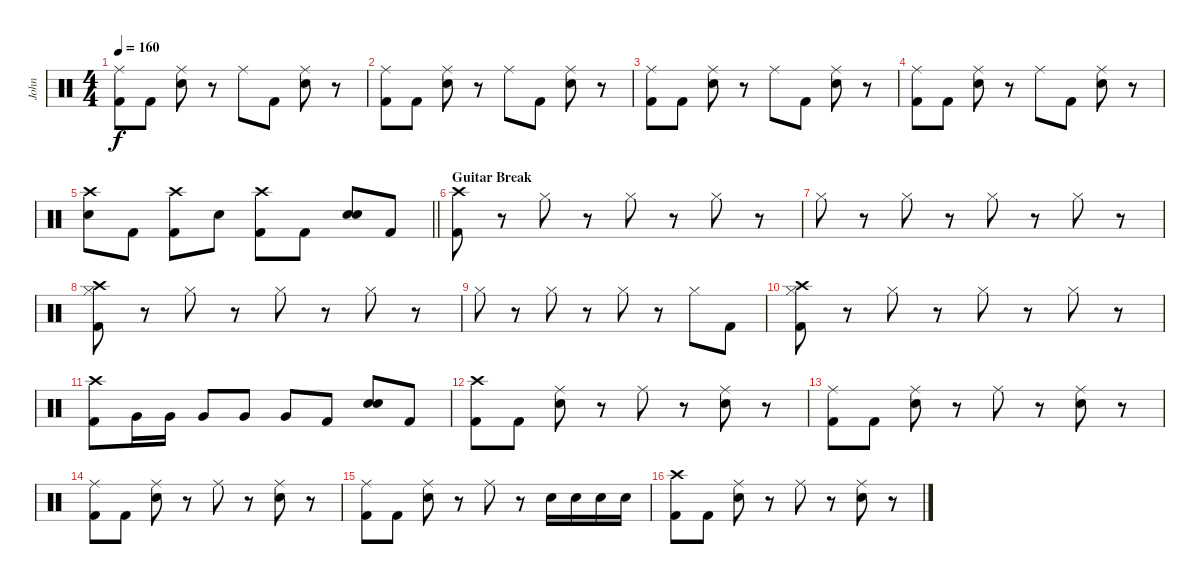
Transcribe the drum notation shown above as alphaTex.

\track ("John" "John") {instrument percussion}
\staff {score}
\articulation defaults
\ts (4 4)
\tempo 160
\clef neutral
\ks c
("Ride (middle)" "Kick (hit) 2").8{dy f} "Kick (hit) 2".8 ("Ride (middle)" "Snare (hit) 2").8 r.8 "Ride (middle)".8 "Kick (hit) 2".8 ("Ride (middle)" "Snare (hit) 2").8 r.8 |
("Ride (middle)" "Kick (hit) 2").8 "Kick (hit) 2".8 ("Ride (middle)" "Snare (hit) 2").8 r.8 "Ride (middle)".8 "Kick (hit) 2".8 ("Ride (middle)" "Snare (hit) 2").8 r.8 |
("Ride (middle)" "Kick (hit) 2").8 "Kick (hit) 2".8 ("Ride (middle)" "Snare (hit) 2").8 r.8 "Ride (middle)".8 "Kick (hit) 2".8 ("Ride (middle)" "Snare (hit) 2").8 r.8 |
("Ride (middle)" "Kick (hit) 2").8 "Kick (hit) 2".8 ("Ride (middle)" "Snare (hit) 2").8 r.8 "Ride (middle)".8 "Kick (hit) 2".8 ("Ride (middle)" "Snare (hit) 2").8 r.8 |
\barLineRight lightlight
("Crash high (hit)" "Snare (hit) 2").8 "Kick (hit) 2".8 ("Crash high (hit)" "Kick (hit) 2").8 "Snare (hit) 2".8 ("Crash high (hit)" "Kick (hit) 2").8 "Kick (hit) 2".8 ("Snare (hit) 2" "Snare (hit) 2").8 "Kick (hit) 2".8 |
\section ("" "Guitar Break")
("Crash high (hit)" "Kick (hit) 2").8 r.8 "Hi-Hat (closed)".8 r.8 "Hi-Hat (closed)".8 r.8 "Hi-Hat (closed)".8 r.8 |
"Hi-Hat (closed)".8 r.8 "Hi-Hat (closed)".8 r.8 "Hi-Hat (closed)".8 r.8 "Hi-Hat (closed)".8 r.8 |
("Crash high (hit)" "Hi-Hat (closed)" "Kick (hit) 2").8 r.8 "Hi-Hat (closed)".8 r.8 "Hi-Hat (closed)".8 r.8 "Hi-Hat (closed)".8 r.8 |
"Hi-Hat (closed)".8 r.8 "Hi-Hat (closed)".8 r.8 "Hi-Hat (closed)".8 r.8 "Hi-Hat (closed)".8 "Kick (hit) 2".8 |
("Crash high (hit)" "Hi-Hat (closed)" "Kick (hit) 2").8 r.8 "Hi-Hat (closed)".8 r.8 "Hi-Hat (closed)".8 r.8 "Hi-Hat (closed)".8 r.8 |
("Crash high (hit)" "Kick (hit) 2").8 "Very Low Tom (hit)".16 "Very Low Tom (hit)".16 "Very Low Tom (hit)".8 "Very Low Tom (hit)".8 "Very Low Tom (hit)".8 "Kick (hit) 2".8 ("Snare (hit) 2" "Snare (hit) 2").8 "Kick (hit) 2".8 |
("Crash high (hit)" "Kick (hit) 2").8 "Kick (hit) 2".8 ("Ride (middle)" "Snare (hit) 2").8 r.8 "Ride (middle)".8 r.8 ("Ride (middle)" "Snare (hit) 2").8 r.8 |
("Ride (middle)" "Kick (hit) 2").8 "Kick (hit) 2".8 ("Ride (middle)" "Snare (hit) 2").8 r.8 "Ride (middle)".8 r.8 ("Ride (middle)" "Snare (hit) 2").8 r.8 |
("Ride (middle)" "Kick (hit) 2").8 "Kick (hit) 2".8 ("Ride (middle)" "Snare (hit) 2").8 r.8 "Ride (middle)".8 r.8 ("Ride (middle)" "Snare (hit) 2").8 r.8 |
("Ride (middle)" "Kick (hit) 2").8 "Kick (hit) 2".8 ("Ride (middle)" "Snare (hit) 2").8 r.8 "Ride (middle)".8 r.8 "Snare (hit) 2".16 "Snare (hit) 2".16 "Snare (hit) 2".16 "Snare (hit) 2".16 |
("Crash high (hit)" "Kick (hit) 2").8 "Kick (hit) 2".8 ("Ride (middle)" "Snare (hit) 2").8 r.8 "Ride (middle)".8 r.8 ("Ride (middle)" "Snare (hit) 2").8 r.8
